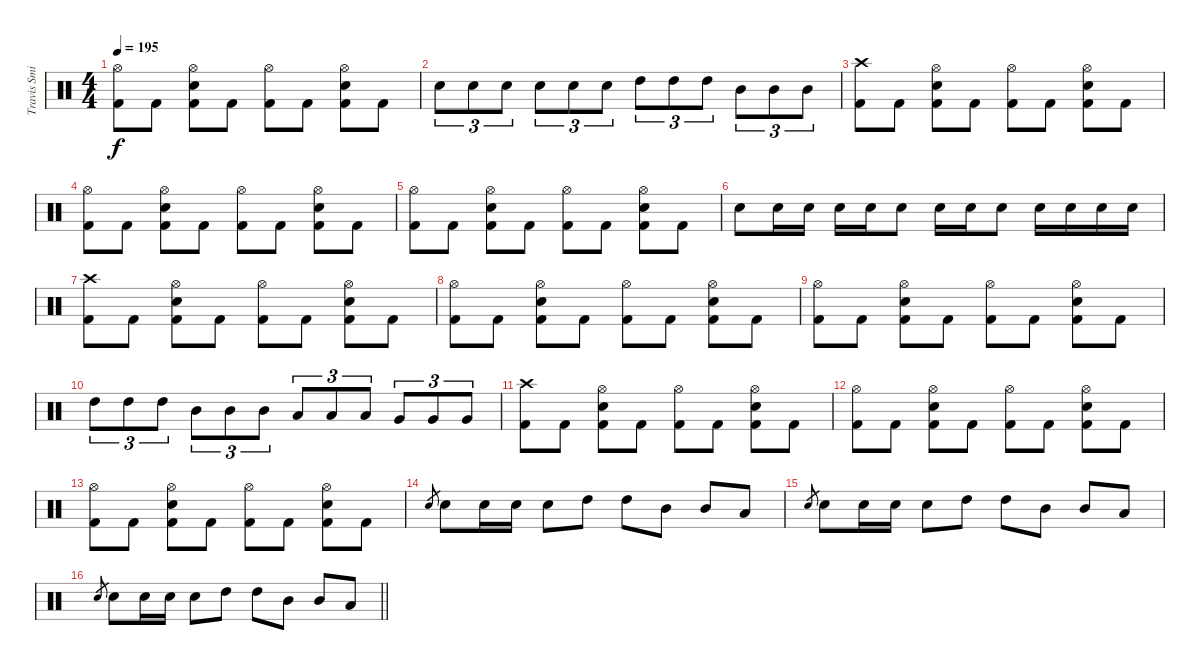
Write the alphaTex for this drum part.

\track ("Travis Smith" "Travis Smi") {instrument percussion}
\staff {score}
\articulation defaults
\ts (4 4)
\tempo 195
\clef neutral
\ks c
("Hi-Hat (open)" "Kick (hit) 2").8{dy f} "Kick (hit) 2".8 ("Hi-Hat (open)" "Snare (hit) 2" "Kick (hit) 2").8 "Kick (hit) 2".8 ("Hi-Hat (open)" "Kick (hit) 2").8 "Kick (hit) 2".8 ("Hi-Hat (open)" "Snare (hit) 2" "Kick (hit) 2").8 "Kick (hit) 2".8 |
"Snare (hit) 2".8{tu (3 2)} "Snare (hit) 2".8{tu (3 2)} "Snare (hit) 2".8{tu (3 2)} "Snare (hit) 2".8{tu (3 2)} "Snare (hit) 2".8{tu (3 2)} "Snare (hit) 2".8{tu (3 2)} "High Tom (hit)".8{tu (3 2)} "High Tom (hit)".8{tu (3 2)} "High Tom (hit)".8{tu (3 2)} "Mid Tom (hit)".8{tu (3 2)} "Mid Tom (hit)".8{tu (3 2)} "Mid Tom (hit)".8{tu (3 2)} |
("Crash high (hit)" "Kick (hit) 2").8 "Kick (hit) 2".8 ("Hi-Hat (open)" "Snare (hit) 2" "Kick (hit) 2").8 "Kick (hit) 2".8 ("Hi-Hat (open)" "Kick (hit) 2").8 "Kick (hit) 2".8 ("Hi-Hat (open)" "Snare (hit) 2" "Kick (hit) 2").8 "Kick (hit) 2".8 |
("Hi-Hat (open)" "Kick (hit) 2").8 "Kick (hit) 2".8 ("Hi-Hat (open)" "Snare (hit) 2" "Kick (hit) 2").8 "Kick (hit) 2".8 ("Hi-Hat (open)" "Kick (hit) 2").8 "Kick (hit) 2".8 ("Hi-Hat (open)" "Snare (hit) 2" "Kick (hit) 2").8 "Kick (hit) 2".8 |
("Hi-Hat (open)" "Kick (hit) 2").8 "Kick (hit) 2".8 ("Hi-Hat (open)" "Snare (hit) 2" "Kick (hit) 2").8 "Kick (hit) 2".8 ("Hi-Hat (open)" "Kick (hit) 2").8 "Kick (hit) 2".8 ("Hi-Hat (open)" "Snare (hit) 2" "Kick (hit) 2").8 "Kick (hit) 2".8 |
"Snare (hit) 2".8 "Snare (hit) 2".16 "Snare (hit) 2".16 "Snare (hit) 2".16 "Snare (hit) 2".16 "Snare (hit) 2".8 "Snare (hit) 2".16 "Snare (hit) 2".16 "Snare (hit) 2".8 "Snare (hit) 2".16 "Snare (hit) 2".16 "Snare (hit) 2".16 "Snare (hit) 2".16 |
("Crash high (hit)" "Kick (hit) 2").8 "Kick (hit) 2".8 ("Hi-Hat (open)" "Snare (hit) 2" "Kick (hit) 2").8 "Kick (hit) 2".8 ("Hi-Hat (open)" "Kick (hit) 2").8 "Kick (hit) 2".8 ("Hi-Hat (open)" "Snare (hit) 2" "Kick (hit) 2").8 "Kick (hit) 2".8 |
("Hi-Hat (open)" "Kick (hit) 2").8 "Kick (hit) 2".8 ("Hi-Hat (open)" "Snare (hit) 2" "Kick (hit) 2").8 "Kick (hit) 2".8 ("Hi-Hat (open)" "Kick (hit) 2").8 "Kick (hit) 2".8 ("Hi-Hat (open)" "Snare (hit) 2" "Kick (hit) 2").8 "Kick (hit) 2".8 |
("Hi-Hat (open)" "Kick (hit) 2").8 "Kick (hit) 2".8 ("Hi-Hat (open)" "Snare (hit) 2" "Kick (hit) 2").8 "Kick (hit) 2".8 ("Hi-Hat (open)" "Kick (hit) 2").8 "Kick (hit) 2".8 ("Hi-Hat (open)" "Snare (hit) 2" "Kick (hit) 2").8 "Kick (hit) 2".8 |
"High Tom (hit)".8{tu (3 2)} "High Tom (hit)".8{tu (3 2)} "High Tom (hit)".8{tu (3 2)} "Mid Tom (hit)".8{tu (3 2)} "Mid Tom (hit)".8{tu (3 2)} "Mid Tom (hit)".8{tu (3 2)} "Low Tom (hit)".8{tu (3 2)} "Low Tom (hit)".8{tu (3 2)} "Low Tom (hit)".8{tu (3 2)} "Very Low Tom (hit)".8{tu (3 2)} "Very Low Tom (hit)".8{tu (3 2)} "Very Low Tom (hit)".8{tu (3 2)} |
("Crash high (hit)" "Kick (hit) 2").8 "Kick (hit) 2".8 ("Hi-Hat (open)" "Snare (hit) 2" "Kick (hit) 2").8 "Kick (hit) 2".8 ("Hi-Hat (open)" "Kick (hit) 2").8 "Kick (hit) 2".8 ("Hi-Hat (open)" "Snare (hit) 2" "Kick (hit) 2").8 "Kick (hit) 2".8 |
("Hi-Hat (open)" "Kick (hit) 2").8 "Kick (hit) 2".8 ("Hi-Hat (open)" "Snare (hit) 2" "Kick (hit) 2").8 "Kick (hit) 2".8 ("Hi-Hat (open)" "Kick (hit) 2").8 "Kick (hit) 2".8 ("Hi-Hat (open)" "Snare (hit) 2" "Kick (hit) 2").8 "Kick (hit) 2".8 |
("Hi-Hat (open)" "Kick (hit) 2").8 "Kick (hit) 2".8 ("Hi-Hat (open)" "Snare (hit) 2" "Kick (hit) 2").8 "Kick (hit) 2".8 ("Hi-Hat (open)" "Kick (hit) 2").8 "Kick (hit) 2".8 ("Hi-Hat (open)" "Snare (hit) 2" "Kick (hit) 2").8 "Kick (hit) 2".8 |
"Snare (hit) 2".8{gr} "Snare (hit) 2".8 "Snare (hit) 2".16 "Snare (hit) 2".16 "Snare (hit) 2".8 "High Tom (hit)".8 "High Tom (hit)".8 "Mid Tom (hit)".8 "Mid Tom (hit)".8 "Low Tom (hit)".8 |
"Snare (hit) 2".8{gr} "Snare (hit) 2".8 "Snare (hit) 2".16 "Snare (hit) 2".16 "Snare (hit) 2".8 "High Tom (hit)".8 "High Tom (hit)".8 "Mid Tom (hit)".8 "Mid Tom (hit)".8 "Low Tom (hit)".8 |
\barLineRight lightlight "Snare (hit) 2".8{gr} "Snare (hit) 2".8 "Snare (hit) 2".16 "Snare (hit) 2".16 "Snare (hit) 2".8 "High Tom (hit)".8 "High Tom (hit)".8 "Mid Tom (hit)".8 "Mid Tom (hit)".8 "Low Tom (hit)".8
